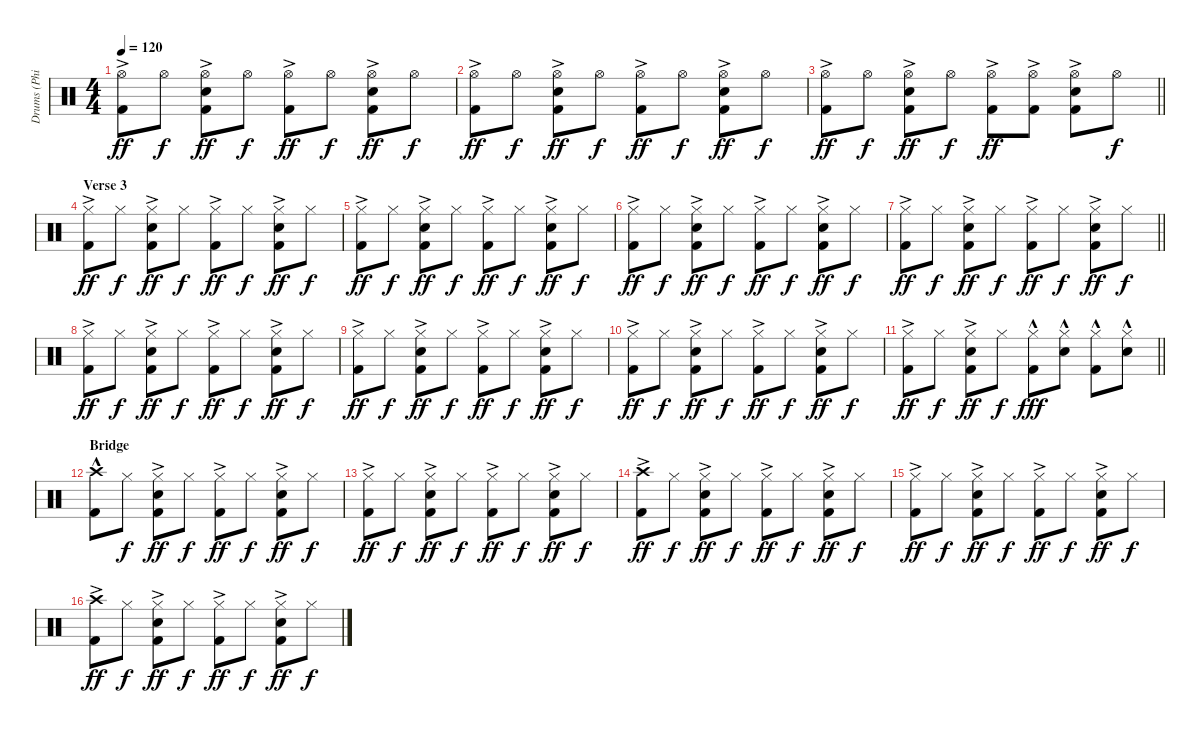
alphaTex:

\track ("Drums (Phil Rudd)" "Drums (Phi") {instrument percussion}
\staff {score}
\articulation defaults
\ts (4 4)
\tempo 120
\clef neutral
\ks c
("Hi-Hat (open)"{ac} "Kick (hit) 2").8{dy ff} "Hi-Hat (open)".8{dy f} ("Snare (hit) 2"{ac} "Hi-Hat (open)" "Kick (hit) 2").8{dy ff} "Hi-Hat (open)".8{dy f} ("Hi-Hat (open)"{ac} "Kick (hit) 2").8{dy ff} "Hi-Hat (open)".8{dy f} ("Hi-Hat (open)"{ac} "Snare (hit) 2" "Kick (hit) 2").8{dy ff} "Hi-Hat (open)".8{dy f} |
("Hi-Hat (open)"{ac} "Kick (hit) 2").8{dy ff} "Hi-Hat (open)".8{dy f} ("Snare (hit) 2" "Hi-Hat (open)"{ac} "Kick (hit) 2").8{dy ff} "Hi-Hat (open)".8{dy f} ("Hi-Hat (open)"{ac} "Kick (hit) 2").8{dy ff} "Hi-Hat (open)".8{dy f} ("Hi-Hat (open)"{ac} "Snare (hit) 2" "Kick (hit) 2").8{dy ff} "Hi-Hat (open)".8{dy f} |
\barLineRight lightlight
("Hi-Hat (open)"{ac} "Kick (hit) 2").8{dy ff} "Hi-Hat (open)".8{dy f} ("Snare (hit) 2"{ac} "Hi-Hat (open)" "Kick (hit) 2").8{dy ff} "Hi-Hat (open)".8{dy f} ("Hi-Hat (open)"{ac} "Kick (hit) 2").8{dy ff} ("Hi-Hat (open)"{ac} "Kick (hit) 2").8 ("Hi-Hat (open)"{ac} "Snare (hit) 2" "Kick (hit) 2").8 "Hi-Hat (open)".8{dy f} |
\section ("" "Verse 3")
("Kick (hit) 2" "Hi-Hat (closed)"{ac}).8{dy ff} "Hi-Hat (closed)".8{dy f} ("Kick (hit) 2" "Snare (hit) 2" "Hi-Hat (closed)"{ac}).8{dy ff} "Hi-Hat (closed)".8{dy f} ("Hi-Hat (closed)"{ac} "Kick (hit) 2").8{dy ff} "Hi-Hat (closed)".8{dy f} ("Kick (hit) 2" "Snare (hit) 2" "Hi-Hat (closed)"{ac}).8{dy ff} "Hi-Hat (closed)".8{dy f} |
("Hi-Hat (closed)"{ac} "Kick (hit) 2").8{dy ff} "Hi-Hat (closed)".8{dy f} ("Kick (hit) 2" "Snare (hit) 2" "Hi-Hat (closed)"{ac}).8{dy ff} "Hi-Hat (closed)".8{dy f} ("Kick (hit) 2" "Hi-Hat (closed)"{ac}).8{dy ff} "Hi-Hat (closed)".8{dy f} ("Kick (hit) 2" "Snare (hit) 2" "Hi-Hat (closed)"{ac}).8{dy ff} "Hi-Hat (closed)".8{dy f} |
("Hi-Hat (closed)"{ac} "Kick (hit) 2").8{dy ff} "Hi-Hat (closed)".8{dy f} ("Kick (hit) 2" "Snare (hit) 2" "Hi-Hat (closed)"{ac}).8{dy ff} "Hi-Hat (closed)".8{dy f} ("Kick (hit) 2" "Hi-Hat (closed)"{ac}).8{dy ff} "Hi-Hat (closed)".8{dy f} ("Kick (hit) 2" "Snare (hit) 2" "Hi-Hat (closed)"{ac}).8{dy ff} "Hi-Hat (closed)".8{dy f} |
\barLineRight lightlight
("Hi-Hat (closed)"{ac} "Kick (hit) 2").8{dy ff} "Hi-Hat (closed)".8{dy f} ("Kick (hit) 2" "Snare (hit) 2" "Hi-Hat (closed)"{ac}).8{dy ff} "Hi-Hat (closed)".8{dy f} ("Kick (hit) 2" "Hi-Hat (closed)"{ac}).8{dy ff} "Hi-Hat (closed)".8{dy f} ("Kick (hit) 2" "Snare (hit) 2" "Hi-Hat (closed)"{ac}).8{dy ff} "Hi-Hat (closed)".8{dy f} |
("Hi-Hat (closed)"{ac} "Kick (hit) 2").8{dy ff} "Hi-Hat (closed)".8{dy f} ("Kick (hit) 2" "Snare (hit) 2" "Hi-Hat (closed)"{ac}).8{dy ff} "Hi-Hat (closed)".8{dy f} ("Kick (hit) 2" "Hi-Hat (closed)"{ac}).8{dy ff} "Hi-Hat (closed)".8{dy f} ("Kick (hit) 2" "Snare (hit) 2" "Hi-Hat (closed)"{ac}).8{dy ff} "Hi-Hat (closed)".8{dy f} |
("Hi-Hat (closed)"{ac} "Kick (hit) 2").8{dy ff} "Hi-Hat (closed)".8{dy f} ("Kick (hit) 2" "Snare (hit) 2" "Hi-Hat (closed)"{ac}).8{dy ff} "Hi-Hat (closed)".8{dy f} ("Kick (hit) 2" "Hi-Hat (closed)"{ac}).8{dy ff} "Hi-Hat (closed)".8{dy f} ("Kick (hit) 2" "Snare (hit) 2" "Hi-Hat (closed)"{ac}).8{dy ff} "Hi-Hat (closed)".8{dy f} |
("Hi-Hat (closed)"{ac} "Kick (hit) 2").8{dy ff} "Hi-Hat (closed)".8{dy f} ("Kick (hit) 2" "Snare (hit) 2" "Hi-Hat (closed)"{ac}).8{dy ff} "Hi-Hat (closed)".8{dy f} ("Kick (hit) 2" "Hi-Hat (closed)"{ac}).8{dy ff} "Hi-Hat (closed)".8{dy f} ("Kick (hit) 2" "Snare (hit) 2" "Hi-Hat (closed)"{ac}).8{dy ff} "Hi-Hat (closed)".8{dy f} |
\barLineRight lightlight
("Kick (hit) 2" "Hi-Hat (closed)"{ac}).8{dy ff} "Hi-Hat (closed)".8{dy f} ("Kick (hit) 2" "Snare (hit) 2" "Hi-Hat (closed)"{ac}).8{dy ff} "Hi-Hat (closed)".8{dy f} ("Hi-Hat (closed)"{hac} "Kick (hit) 2").8{dy fff} ("Snare (hit) 2" "Hi-Hat (closed)"{hac}).8 ("Kick (hit) 2" "Hi-Hat (closed)"{hac}).8 ("Hi-Hat (closed)"{hac} "Snare (hit) 2").8 |
\section ("" "Bridge")
("Kick (hit) 2" "Crash high (hit)"{hac}).8 "Hi-Hat (closed)".8{dy f} ("Kick (hit) 2" "Snare (hit) 2" "Hi-Hat (closed)"{ac}).8{dy ff} "Hi-Hat (closed)".8{dy f} ("Hi-Hat (closed)"{ac} "Kick (hit) 2").8{dy ff} "Hi-Hat (closed)".8{dy f} ("Kick (hit) 2" "Snare (hit) 2" "Hi-Hat (closed)"{ac}).8{dy ff} "Hi-Hat (closed)".8{dy f} |
("Hi-Hat (closed)"{ac} "Kick (hit) 2").8{dy ff} "Hi-Hat (closed)".8{dy f} ("Kick (hit) 2" "Snare (hit) 2" "Hi-Hat (closed)"{ac}).8{dy ff} "Hi-Hat (closed)".8{dy f} ("Kick (hit) 2" "Hi-Hat (closed)"{ac}).8{dy ff} "Hi-Hat (closed)".8{dy f} ("Kick (hit) 2" "Snare (hit) 2" "Hi-Hat (closed)"{ac}).8{dy ff} "Hi-Hat (closed)".8{dy f} |
("Kick (hit) 2" "Crash high (hit)"{ac}).8{dy ff} "Hi-Hat (closed)".8{dy f} ("Kick (hit) 2" "Snare (hit) 2" "Hi-Hat (closed)"{ac}).8{dy ff} "Hi-Hat (closed)".8{dy f} ("Hi-Hat (closed)"{ac} "Kick (hit) 2").8{dy ff} "Hi-Hat (closed)".8{dy f} ("Kick (hit) 2" "Snare (hit) 2" "Hi-Hat (closed)"{ac}).8{dy ff} "Hi-Hat (closed)".8{dy f} |
("Hi-Hat (closed)"{ac} "Kick (hit) 2").8{dy ff} "Hi-Hat (closed)".8{dy f} ("Kick (hit) 2" "Snare (hit) 2" "Hi-Hat (closed)"{ac}).8{dy ff} "Hi-Hat (closed)".8{dy f} ("Kick (hit) 2" "Hi-Hat (closed)"{ac}).8{dy ff} "Hi-Hat (closed)".8{dy f} ("Kick (hit) 2" "Snare (hit) 2" "Hi-Hat (closed)"{ac}).8{dy ff} "Hi-Hat (closed)".8{dy f} |
("Kick (hit) 2" "Crash high (hit)"{ac}).8{dy ff} "Hi-Hat (closed)".8{dy f} ("Kick (hit) 2" "Snare (hit) 2" "Hi-Hat (closed)"{ac}).8{dy ff} "Hi-Hat (closed)".8{dy f} ("Hi-Hat (closed)"{ac} "Kick (hit) 2").8{dy ff} "Hi-Hat (closed)".8{dy f} ("Kick (hit) 2" "Snare (hit) 2" "Hi-Hat (closed)"{ac}).8{dy ff} "Hi-Hat (closed)".8{dy f}
